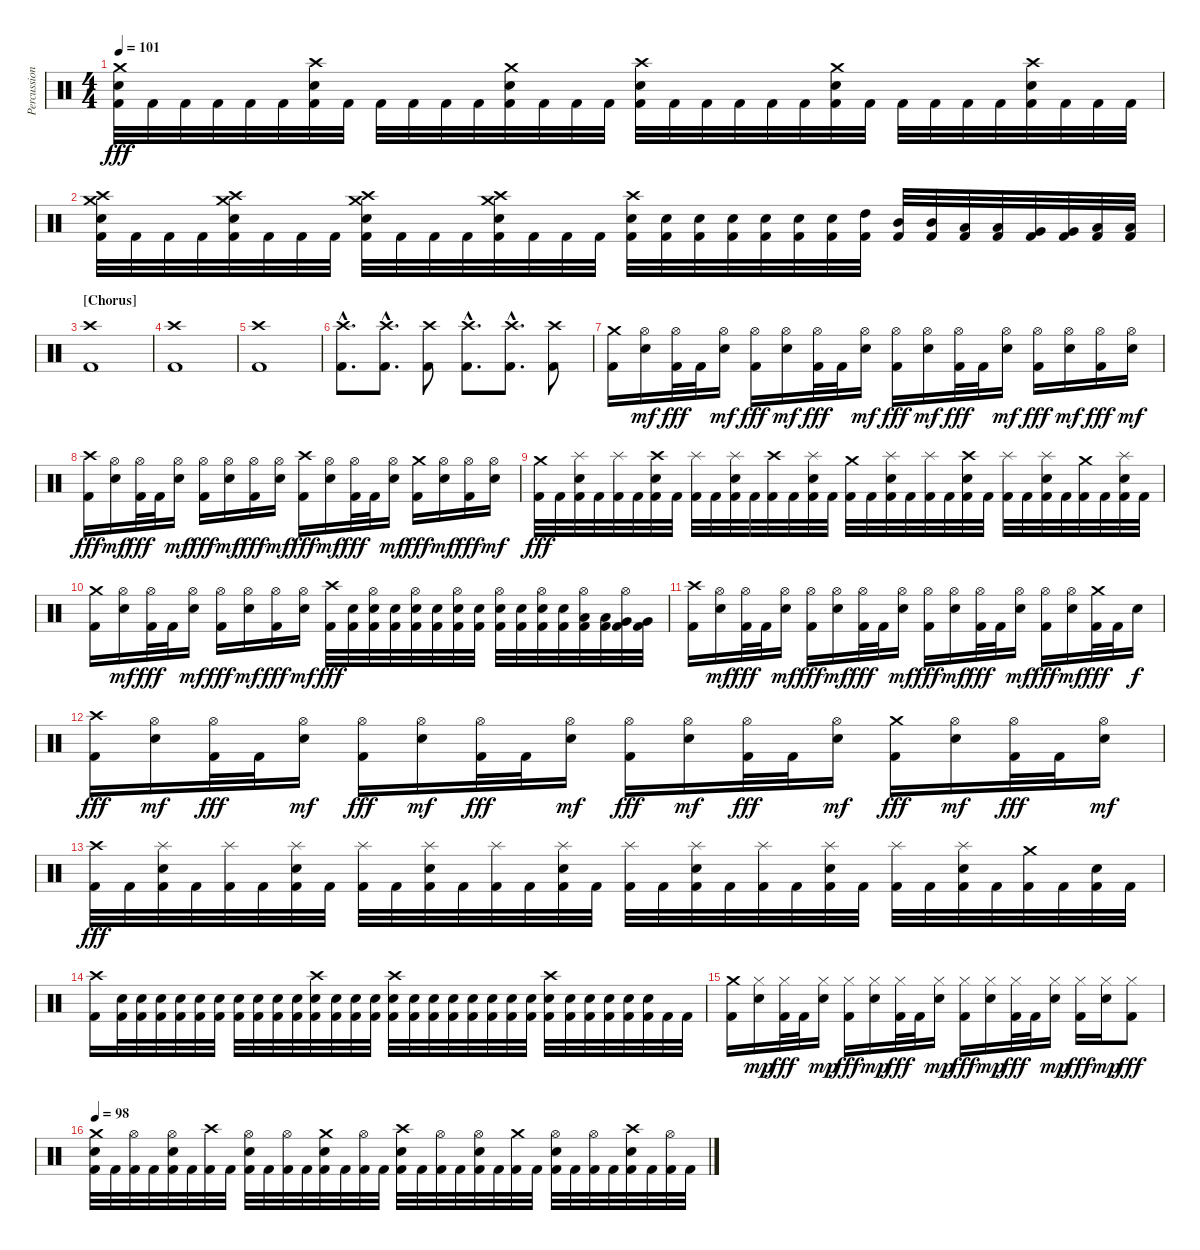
\track ("Percussion" "Percussion") {instrument percussion}
\staff {score}
\articulation defaults
\ts (4 4)
\tempo 101
\clef neutral
\ks c
("Crash medium (hit)" "Snare (hit) 2" "Kick (hit) 2").32{dy fff} "Kick (hit) 2".32 "Kick (hit) 2".32 "Kick (hit) 2".32 "Kick (hit) 2".32 "Kick (hit) 2".32 ("Crash high (hit)" "Snare (hit) 2" "Kick (hit) 2").32 "Kick (hit) 2".32 "Kick (hit) 2".32 "Kick (hit) 2".32 "Kick (hit) 2".32 "Kick (hit) 2".32 ("Crash medium (hit)" "Snare (hit) 2" "Kick (hit) 2").32 "Kick (hit) 2".32 "Kick (hit) 2".32 "Kick (hit) 2".32 ("Crash high (hit)" "Snare (hit) 2" "Kick (hit) 2").32 "Kick (hit) 2".32 "Kick (hit) 2".32 "Kick (hit) 2".32 "Kick (hit) 2".32 "Kick (hit) 2".32 ("Crash medium (hit)" "Snare (hit) 2" "Kick (hit) 2").32 "Kick (hit) 2".32 "Kick (hit) 2".32 "Kick (hit) 2".32 "Kick (hit) 2".32 "Kick (hit) 2".32 ("Crash high (hit)" "Snare (hit) 2" "Kick (hit) 2").32 "Kick (hit) 2".32 "Kick (hit) 2".32 "Kick (hit) 2".32 |
("Crash medium (hit)" "Crash high (hit)" "Snare (hit) 2" "Kick (hit) 2").32 "Kick (hit) 2".32 "Kick (hit) 2".32 "Kick (hit) 2".32 ("Crash medium (hit)" "Crash high (hit)" "Snare (hit) 2" "Kick (hit) 2").32 "Kick (hit) 2".32 "Kick (hit) 2".32 "Kick (hit) 2".32 ("Crash medium (hit)" "Crash high (hit)" "Snare (hit) 2" "Kick (hit) 2").32 "Kick (hit) 2".32 "Kick (hit) 2".32 "Kick (hit) 2".32 ("Crash medium (hit)" "Crash high (hit)" "Snare (hit) 2" "Kick (hit) 2").32 "Kick (hit) 2".32 "Kick (hit) 2".32 "Kick (hit) 2".32 ("Crash high (hit)" "Snare (hit) 2" "Kick (hit) 2").32 ("Snare (hit) 2" "Kick (hit) 2").32 ("Snare (hit) 2" "Kick (hit) 2").32 ("Snare (hit) 2" "Kick (hit) 2").32 ("Snare (hit) 2" "Kick (hit) 2").32 ("Snare (hit) 2" "Kick (hit) 2").32 ("Snare (hit) 2" "Kick (hit) 2").32 ("High Tom (hit)" "Kick (hit) 2").32 ("Mid Tom (hit)" "Kick (hit) 2").32 ("Mid Tom (hit)" "Kick (hit) 2").32 ("Low Tom (hit)" "Kick (hit) 2").32 ("Low Tom (hit)" "Kick (hit) 2").32 ("Very Low Tom (hit)" "Kick (hit) 2").32 ("Very Low Tom (hit)" "Kick (hit) 2").32 ("Low Floor Tom (hit)" "Kick (hit) 2").32 ("Low Floor Tom (hit)" "Kick (hit) 2").32 |
\section ("" "[Chorus]")
("Crash high (hit)" "Kick (hit) 2").1 |
("Crash high (hit)" "Kick (hit) 2").1 |
("Crash high (hit)" "Kick (hit) 2").1 |
("Crash high (hit)"{hac} "Kick (hit) 2"{hac}).8{d} ("Crash high (hit)"{hac} "Kick (hit) 2"{hac}).8{d} ("Crash high (hit)" "Kick (hit) 2").8 ("Crash high (hit)"{hac} "Kick (hit) 2"{hac}).8{d} ("Crash high (hit)"{hac} "Kick (hit) 2"{hac}).8{d} ("Crash high (hit)" "Kick (hit) 2").8 |
\section ("" "")
("Crash medium (hit)" "Kick (hit) 2").16 ("Hi-Hat (open)" "Snare (hit) 2").16{dy mf} ("Hi-Hat (open)" "Kick (hit) 2").32{dy fff} "Kick (hit) 2".32 ("Hi-Hat (open)" "Snare (hit) 2").16{dy mf} ("Hi-Hat (open)" "Kick (hit) 2").16{dy fff} ("Hi-Hat (open)" "Snare (hit) 2").16{dy mf} ("Hi-Hat (open)" "Kick (hit) 2").32{dy fff} "Kick (hit) 2".32 ("Hi-Hat (open)" "Snare (hit) 2").16{dy mf} ("Hi-Hat (open)" "Kick (hit) 2").16{dy fff} ("Hi-Hat (open)" "Snare (hit) 2").16{dy mf} ("Hi-Hat (open)" "Kick (hit) 2").32{dy fff} "Kick (hit) 2".32 ("Hi-Hat (open)" "Snare (hit) 2").16{dy mf} ("Hi-Hat (open)" "Kick (hit) 2").16{dy fff} ("Hi-Hat (open)" "Snare (hit) 2").16{dy mf} ("Hi-Hat (open)" "Kick (hit) 2").16{dy fff} ("Hi-Hat (open)" "Snare (hit) 2").16{dy mf} |
("Crash high (hit)" "Kick (hit) 2").16{dy fff} ("Hi-Hat (open)" "Snare (hit) 2").16{dy mf} ("Hi-Hat (open)" "Kick (hit) 2").32{dy fff} "Kick (hit) 2".32 ("Hi-Hat (open)" "Snare (hit) 2").16{dy mf} ("Hi-Hat (open)" "Kick (hit) 2").16{dy fff} ("Hi-Hat (open)" "Snare (hit) 2").16{dy mf} ("Hi-Hat (open)" "Kick (hit) 2").16{dy fff} ("Hi-Hat (open)" "Snare (hit) 2").16{dy mf} ("Crash high (hit)" "Kick (hit) 2").16{dy fff} ("Hi-Hat (open)" "Snare (hit) 2").16{dy mf} ("Hi-Hat (open)" "Kick (hit) 2").32{dy fff} "Kick (hit) 2".32 ("Hi-Hat (open)" "Snare (hit) 2").16{dy mf} ("Crash medium (hit)" "Kick (hit) 2").16{dy fff} ("Hi-Hat (open)" "Snare (hit) 2").16{dy mf} ("Hi-Hat (open)" "Kick (hit) 2").16{dy fff} ("Hi-Hat (open)" "Snare (hit) 2").16{dy mf} |
("Crash medium (hit)" "Kick (hit) 2").32{dy fff} "Kick (hit) 2".32 ("Splash (hit)" "Snare (hit) 2" "Kick (hit) 2").32 "Kick (hit) 2".32 ("Splash (hit)" "Kick (hit) 2").32 "Kick (hit) 2".32 ("Crash high (hit)" "Snare (hit) 2" "Kick (hit) 2").32 "Kick (hit) 2".32 ("Splash (hit)" "Kick (hit) 2").32 "Kick (hit) 2".32 ("Splash (hit)" "Snare (hit) 2" "Kick (hit) 2").32 "Kick (hit) 2".32 ("Crash high (hit)" "Kick (hit) 2").32 "Kick (hit) 2".32 ("Splash (hit)" "Snare (hit) 2" "Kick (hit) 2").32 "Kick (hit) 2".32 ("Crash medium (hit)" "Kick (hit) 2").32 "Kick (hit) 2".32 ("Splash (hit)" "Snare (hit) 2" "Kick (hit) 2").32 "Kick (hit) 2".32 ("Splash (hit)" "Kick (hit) 2").32 "Kick (hit) 2".32 ("Crash high (hit)" "Snare (hit) 2" "Kick (hit) 2").32 "Kick (hit) 2".32 ("Splash (hit)" "Kick (hit) 2").32 "Kick (hit) 2".32 ("Splash (hit)" "Snare (hit) 2" "Kick (hit) 2").32 "Kick (hit) 2".32 ("Crash medium (hit)" "Kick (hit) 2").32 "Kick (hit) 2".32 ("Splash (hit)" "Snare (hit) 2" "Kick (hit) 2").32 "Kick (hit) 2".32 |
("Crash medium (hit)" "Kick (hit) 2").16 ("Hi-Hat (open)" "Snare (hit) 2").16{dy mf} ("Hi-Hat (open)" "Kick (hit) 2").32{dy fff} "Kick (hit) 2".32 ("Hi-Hat (open)" "Snare (hit) 2").16{dy mf} ("Hi-Hat (open)" "Kick (hit) 2").16{dy fff} ("Hi-Hat (open)" "Snare (hit) 2").16{dy mf} ("Hi-Hat (open)" "Kick (hit) 2").16{dy fff} ("Hi-Hat (open)" "Snare (hit) 2").16{dy mf} ("Crash high (hit)" "Kick (hit) 2").32{dy fff} ("Snare (hit) 2" "Kick (hit) 2").32 ("Hi-Hat (open)" "Snare (hit) 2" "Kick (hit) 2").32 ("Snare (hit) 2" "Kick (hit) 2").32 ("Hi-Hat (open)" "Snare (hit) 2" "Kick (hit) 2").32 ("Snare (hit) 2" "Kick (hit) 2").32 ("Hi-Hat (open)" "Snare (hit) 2" "Kick (hit) 2").32 ("Snare (hit) 2" "Kick (hit) 2").32 ("Hi-Hat (open)" "Snare (hit) 2" "Kick (hit) 2").32 ("Snare (hit) 2" "Kick (hit) 2").32 ("Hi-Hat (open)" "Snare (hit) 2" "Kick (hit) 2").32 ("Snare (hit) 2" "Kick (hit) 2").32 ("Hi-Hat (open)" "Low Tom (hit)" "Kick (hit) 2").32 ("Low Tom (hit)" "Kick (hit) 2").32 ("Hi-Hat (open)" "Very Low Tom (hit)" "Kick (hit) 2").32 ("Very Low Tom (hit)" "Kick (hit) 2").32 |
("Crash high (hit)" "Kick (hit) 2").16 ("Hi-Hat (open)" "Snare (hit) 2").16{dy mf} ("Hi-Hat (open)" "Kick (hit) 2").32{dy fff} "Kick (hit) 2".32 ("Hi-Hat (open)" "Snare (hit) 2").16{dy mf} ("Hi-Hat (open)" "Kick (hit) 2").16{dy fff} ("Hi-Hat (open)" "Snare (hit) 2").16{dy mf} ("Hi-Hat (open)" "Kick (hit) 2").32{dy fff} "Kick (hit) 2".32 ("Hi-Hat (open)" "Snare (hit) 2").16{dy mf} ("Hi-Hat (open)" "Kick (hit) 2").16{dy fff} ("Hi-Hat (open)" "Snare (hit) 2").16{dy mf} ("Hi-Hat (open)" "Kick (hit) 2").32{dy fff} "Kick (hit) 2".32 ("Hi-Hat (open)" "Snare (hit) 2").16{dy mf} ("Hi-Hat (open)" "Kick (hit) 2").16{dy fff} ("Hi-Hat (open)" "Snare (hit) 2").16{dy mf} ("Crash medium (hit)" "Kick (hit) 2").32{dy fff} "Kick (hit) 2".32 "Snare (hit) 2".16{dy f} |
("Crash high (hit)" "Kick (hit) 2").16{dy fff} ("Hi-Hat (open)" "Snare (hit) 2").16{dy mf} ("Hi-Hat (open)" "Kick (hit) 2").32{dy fff} "Kick (hit) 2".32 ("Hi-Hat (open)" "Snare (hit) 2").16{dy mf} ("Hi-Hat (open)" "Kick (hit) 2").16{dy fff} ("Hi-Hat (open)" "Snare (hit) 2").16{dy mf} ("Hi-Hat (open)" "Kick (hit) 2").32{dy fff} "Kick (hit) 2".32 ("Hi-Hat (open)" "Snare (hit) 2").16{dy mf} ("Hi-Hat (open)" "Kick (hit) 2").16{dy fff} ("Hi-Hat (open)" "Snare (hit) 2").16{dy mf} ("Hi-Hat (open)" "Kick (hit) 2").32{dy fff} "Kick (hit) 2".32 ("Hi-Hat (open)" "Snare (hit) 2").16{dy mf} ("Crash medium (hit)" "Kick (hit) 2").16{dy fff} ("Hi-Hat (open)" "Snare (hit) 2").16{dy mf} ("Hi-Hat (open)" "Kick (hit) 2").32{dy fff} "Kick (hit) 2".32 ("Hi-Hat (open)" "Snare (hit) 2").16{dy mf} |
("Crash high (hit)" "Kick (hit) 2").32{dy fff} "Kick (hit) 2".32 ("Splash (hit)" "Snare (hit) 2" "Kick (hit) 2").32 "Kick (hit) 2".32 ("Splash (hit)" "Kick (hit) 2").32 "Kick (hit) 2".32 ("Splash (hit)" "Snare (hit) 2" "Kick (hit) 2").32 "Kick (hit) 2".32 ("Splash (hit)" "Kick (hit) 2").32 "Kick (hit) 2".32 ("Splash (hit)" "Snare (hit) 2" "Kick (hit) 2").32 "Kick (hit) 2".32 ("Splash (hit)" "Kick (hit) 2").32 "Kick (hit) 2".32 ("Splash (hit)" "Snare (hit) 2" "Kick (hit) 2").32 "Kick (hit) 2".32 ("Splash (hit)" "Kick (hit) 2").32 "Kick (hit) 2".32 ("Splash (hit)" "Snare (hit) 2" "Kick (hit) 2").32 "Kick (hit) 2".32 ("Splash (hit)" "Kick (hit) 2").32 "Kick (hit) 2".32 ("Splash (hit)" "Snare (hit) 2" "Kick (hit) 2").32 "Kick (hit) 2".32 ("Splash (hit)" "Kick (hit) 2").32 "Kick (hit) 2".32 ("Splash (hit)" "Snare (hit) 2" "Kick (hit) 2").32 "Kick (hit) 2".32 ("Crash medium (hit)" "Kick (hit) 2").32 "Kick (hit) 2".32 ("Snare (hit) 2" "Kick (hit) 2").32 "Kick (hit) 2".32 |
("Crash high (hit)" "Kick (hit) 2").16 ("Snare (hit) 2" "Kick (hit) 2").32 ("Snare (hit) 2" "Kick (hit) 2").32 ("Snare (hit) 2" "Kick (hit) 2").32 ("Snare (hit) 2" "Kick (hit) 2").32 ("Snare (hit) 2" "Kick (hit) 2").32 ("Snare (hit) 2" "Kick (hit) 2").32 ("Snare (hit) 2" "Kick (hit) 2").32 ("Snare (hit) 2" "Kick (hit) 2").32 ("Snare (hit) 2" "Kick (hit) 2").32 ("Snare (hit) 2" "Kick (hit) 2").32 ("Crash high (hit)" "Snare (hit) 2" "Kick (hit) 2").32 ("Snare (hit) 2" "Kick (hit) 2").32 ("Snare (hit) 2" "Kick (hit) 2").32 ("Snare (hit) 2" "Kick (hit) 2").32 ("Crash high (hit)" "Snare (hit) 2" "Kick (hit) 2").32 ("Snare (hit) 2" "Kick (hit) 2").32 ("Snare (hit) 2" "Kick (hit) 2").32 ("Snare (hit) 2" "Kick (hit) 2").32 ("Snare (hit) 2" "Kick (hit) 2").32 ("Snare (hit) 2" "Kick (hit) 2").32 ("Snare (hit) 2" "Kick (hit) 2").32 ("Snare (hit) 2" "Kick (hit) 2").32 ("Crash high (hit)" "Snare (hit) 2" "Kick (hit) 2").32 ("Snare (hit) 2" "Kick (hit) 2").32 ("Snare (hit) 2" "Kick (hit) 2").32 ("Snare (hit) 2" "Kick (hit) 2").32 ("Snare (hit) 2" "Kick (hit) 2").32 ("Snare (hit) 2" "Kick (hit) 2").32 "Kick (hit) 2".32 "Kick (hit) 2".32 |
("Crash medium (hit)" "Kick (hit) 2").16 ("Hi-Hat (closed)" "Snare (hit) 2").16{dy mp} ("Hi-Hat (closed)" "Kick (hit) 2").32{dy fff} "Kick (hit) 2".32 ("Hi-Hat (closed)" "Snare (hit) 2").16{dy mp} ("Hi-Hat (closed)" "Kick (hit) 2").16{dy fff} ("Hi-Hat (closed)" "Snare (hit) 2").16{dy mp} ("Hi-Hat (closed)" "Kick (hit) 2").32{dy fff} "Kick (hit) 2".32 ("Hi-Hat (closed)" "Snare (hit) 2").16{dy mp} ("Hi-Hat (closed)" "Kick (hit) 2").16{dy fff} ("Hi-Hat (closed)" "Snare (hit) 2").16{dy mp} ("Hi-Hat (closed)" "Kick (hit) 2").32{dy fff} "Kick (hit) 2".32 ("Hi-Hat (closed)" "Snare (hit) 2").16{dy mp} ("Hi-Hat (closed)" "Kick (hit) 2").16{dy fff} ("Hi-Hat (closed)" "Snare (hit) 2").16{dy mp} ("Hi-Hat (closed)" "Kick (hit) 2").8{dy fff} |
\tempo 98
("Crash medium (hit)" "Snare (hit) 2" "Kick (hit) 2").32 "Kick (hit) 2".32 ("Hi-Hat (open)" "Kick (hit) 2").32 "Kick (hit) 2".32 ("Hi-Hat (open)" "Snare (hit) 2" "Kick (hit) 2").32 "Kick (hit) 2".32 ("Crash high (hit)" "Kick (hit) 2").32 "Kick (hit) 2".32 ("Hi-Hat (open)" "Snare (hit) 2" "Kick (hit) 2").32 "Kick (hit) 2".32 ("Hi-Hat (open)" "Kick (hit) 2").32 "Kick (hit) 2".32 ("Crash medium (hit)" "Snare (hit) 2" "Kick (hit) 2").32 "Kick (hit) 2".32 ("Hi-Hat (open)" "Kick (hit) 2").32 "Kick (hit) 2".32 ("Crash high (hit)" "Snare (hit) 2" "Kick (hit) 2").32 "Kick (hit) 2".32 ("Hi-Hat (open)" "Kick (hit) 2").32 "Kick (hit) 2".32 ("Hi-Hat (open)" "Snare (hit) 2" "Kick (hit) 2").32 "Kick (hit) 2".32 ("Crash medium (hit)" "Kick (hit) 2").32 "Kick (hit) 2".32 ("Hi-Hat (open)" "Snare (hit) 2" "Kick (hit) 2").32 "Kick (hit) 2".32 ("Hi-Hat (open)" "Kick (hit) 2").32 "Kick (hit) 2".32 ("Crash high (hit)" "Snare (hit) 2" "Kick (hit) 2").32 "Kick (hit) 2".32 ("Hi-Hat (open)" "Kick (hit) 2").32 "Kick (hit) 2".32
